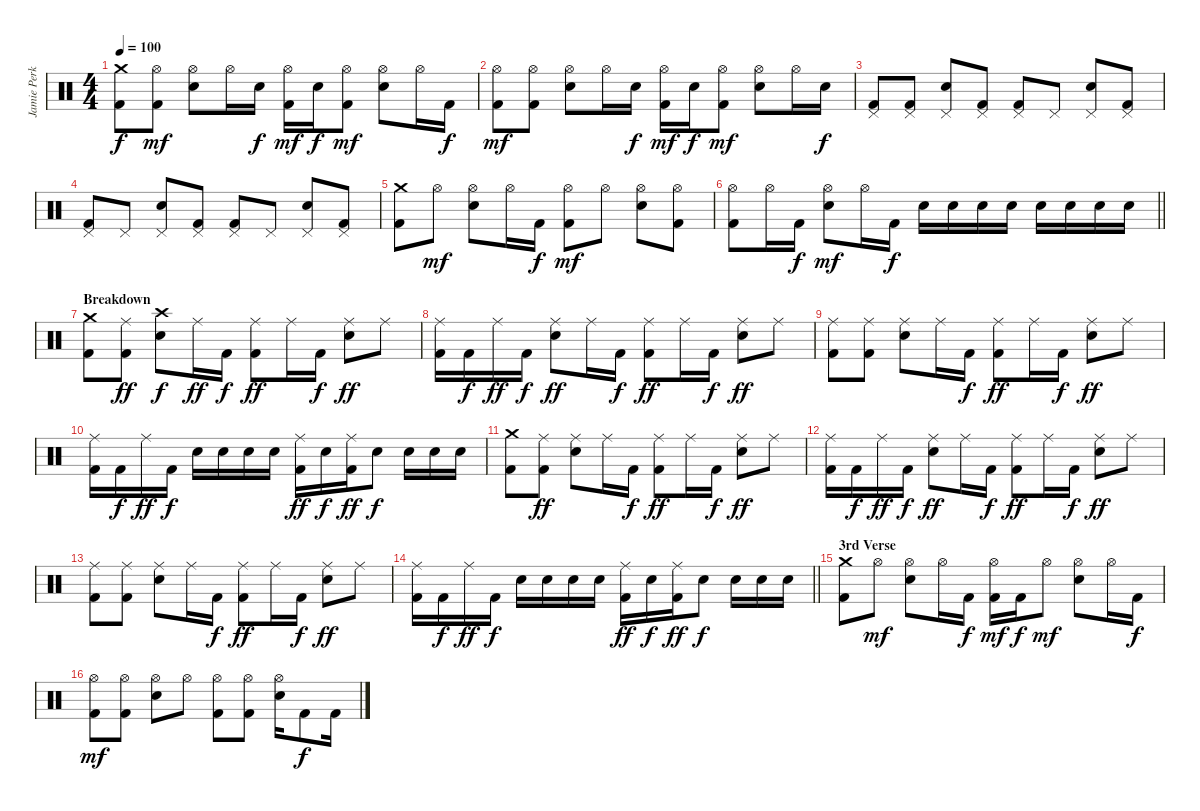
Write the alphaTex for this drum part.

\track ("Jamie Perkins" "Jamie Perk") {instrument percussion}
\staff {score}
\articulation defaults
\ts (4 4)
\tempo 100
\clef neutral
\ks c
("Crash medium (hit)" "Kick (hit) 2").8{dy f} ("Hi-Hat (open)" "Kick (hit) 2").8{dy mf} ("Hi-Hat (open)" "Snare (hit) 2").8 "Hi-Hat (open)".16 "Snare (hit) 2".16{dy f} ("Hi-Hat (open)" "Kick (hit) 2").16{dy mf} "Snare (hit) 2".16{dy f} ("Hi-Hat (open)" "Kick (hit) 2").8{dy mf} ("Hi-Hat (open)" "Snare (hit) 2").8 "Hi-Hat (open)".16 "Kick (hit) 2".16{dy f} |
("Hi-Hat (open)" "Kick (hit) 2").8{dy mf} ("Hi-Hat (open)" "Kick (hit) 2").8 ("Hi-Hat (open)" "Snare (hit) 2").8 "Hi-Hat (open)".16 "Snare (hit) 2".16{dy f} ("Hi-Hat (open)" "Kick (hit) 2").16{dy mf} "Snare (hit) 2".16{dy f} ("Hi-Hat (open)" "Kick (hit) 2").8{dy mf} ("Hi-Hat (open)" "Snare (hit) 2").8 "Hi-Hat (open)".16 "Snare (hit) 2".16{dy f} |
("Pedal Hi-Hat (hit)" "Kick (hit) 2").8 ("Pedal Hi-Hat (hit)" "Kick (hit) 2").8 ("Pedal Hi-Hat (hit)" "Snare (hit) 2").8 ("Pedal Hi-Hat (hit)" "Kick (hit) 2").8 ("Pedal Hi-Hat (hit)" "Kick (hit) 2").8 "Pedal Hi-Hat (hit)".8 ("Pedal Hi-Hat (hit)" "Snare (hit) 2").8 ("Pedal Hi-Hat (hit)" "Kick (hit) 2").8 |
("Pedal Hi-Hat (hit)" "Kick (hit) 2").8 "Pedal Hi-Hat (hit)".8 ("Pedal Hi-Hat (hit)" "Snare (hit) 2").8 ("Pedal Hi-Hat (hit)" "Kick (hit) 2").8 ("Pedal Hi-Hat (hit)" "Kick (hit) 2").8 "Pedal Hi-Hat (hit)".8 ("Pedal Hi-Hat (hit)" "Snare (hit) 2").8 ("Pedal Hi-Hat (hit)" "Kick (hit) 2").8 |
("Crash medium (hit)" "Kick (hit) 2").8 "Hi-Hat (open)".8{dy mf} ("Hi-Hat (open)" "Snare (hit) 2").8 "Hi-Hat (open)".16 "Kick (hit) 2".16{dy f} ("Hi-Hat (open)" "Kick (hit) 2").8{dy mf} "Hi-Hat (open)".8 ("Hi-Hat (open)" "Snare (hit) 2").8 ("Hi-Hat (open)" "Kick (hit) 2").8 |
\barLineRight lightlight
("Hi-Hat (open)" "Kick (hit) 2").8 "Hi-Hat (open)".16 "Kick (hit) 2".16{dy f} ("Hi-Hat (open)" "Snare (hit) 2").8{dy mf} "Hi-Hat (open)".16 "Kick (hit) 2".16{dy f} "Snare (hit) 2".16 "Snare (hit) 2".16 "Snare (hit) 2".16 "Snare (hit) 2".16 "Snare (hit) 2".16 "Snare (hit) 2".16 "Snare (hit) 2".16 "Snare (hit) 2".16 |
\section ("" "Breakdown")
("Crash medium (hit)" "Kick (hit) 2").8 ("Ride (middle)" "Kick (hit) 2").8{dy ff} ("Crash high (hit)" "Snare (hit) 2").8{dy f} "Ride (middle)".16{dy ff} "Kick (hit) 2".16{dy f} ("Ride (middle)" "Kick (hit) 2").8{dy ff} "Ride (middle)".16 "Kick (hit) 2".16{dy f} ("Ride (middle)" "Snare (hit) 2").8{dy ff} "Ride (middle)".8 |
("Ride (middle)" "Kick (hit) 2").16 "Kick (hit) 2".16{dy f} "Ride (middle)".16{dy ff} "Kick (hit) 2".16{dy f} ("Ride (middle)" "Snare (hit) 2").8{dy ff} "Ride (middle)".16 "Kick (hit) 2".16{dy f} ("Ride (middle)" "Kick (hit) 2").8{dy ff} "Ride (middle)".16 "Kick (hit) 2".16{dy f} ("Ride (middle)" "Snare (hit) 2").8{dy ff} "Ride (middle)".8 |
("Ride (middle)" "Kick (hit) 2").8 ("Ride (middle)" "Kick (hit) 2").8 ("Ride (middle)" "Snare (hit) 2").8 "Ride (middle)".16 "Kick (hit) 2".16{dy f} ("Ride (middle)" "Kick (hit) 2").8{dy ff} "Ride (middle)".16 "Kick (hit) 2".16{dy f} ("Ride (middle)" "Snare (hit) 2").8{dy ff} "Ride (middle)".8 |
("Ride (middle)" "Kick (hit) 2").16 "Kick (hit) 2".16{dy f} "Ride (middle)".16{dy ff} "Kick (hit) 2".16{dy f} "Snare (hit) 2".16 "Snare (hit) 2".16 "Snare (hit) 2".16 "Snare (hit) 2".16 ("Ride (middle)" "Kick (hit) 2").16{dy ff} "Snare (hit) 2".16{dy f} ("Ride (middle)" "Kick (hit) 2").16{dy ff} "Snare (hit) 2".8{dy f} "Snare (hit) 2".16 "Snare (hit) 2".16 "Snare (hit) 2".16 |
("Crash medium (hit)" "Kick (hit) 2").8 ("Ride (middle)" "Kick (hit) 2").8{dy ff} ("Ride (middle)" "Snare (hit) 2").8 "Ride (middle)".16 "Kick (hit) 2".16{dy f} ("Ride (middle)" "Kick (hit) 2").8{dy ff} "Ride (middle)".16 "Kick (hit) 2".16{dy f} ("Ride (middle)" "Snare (hit) 2").8{dy ff} "Ride (middle)".8 |
("Ride (middle)" "Kick (hit) 2").16 "Kick (hit) 2".16{dy f} "Ride (middle)".16{dy ff} "Kick (hit) 2".16{dy f} ("Ride (middle)" "Snare (hit) 2").8{dy ff} "Ride (middle)".16 "Kick (hit) 2".16{dy f} ("Ride (middle)" "Kick (hit) 2").8{dy ff} "Ride (middle)".16 "Kick (hit) 2".16{dy f} ("Ride (middle)" "Snare (hit) 2").8{dy ff} "Ride (middle)".8 |
("Ride (middle)" "Kick (hit) 2").8 ("Ride (middle)" "Kick (hit) 2").8 ("Ride (middle)" "Snare (hit) 2").8 "Ride (middle)".16 "Kick (hit) 2".16{dy f} ("Ride (middle)" "Kick (hit) 2").8{dy ff} "Ride (middle)".16 "Kick (hit) 2".16{dy f} ("Ride (middle)" "Snare (hit) 2").8{dy ff} "Ride (middle)".8 |
\barLineRight lightlight
("Ride (middle)" "Kick (hit) 2").16 "Kick (hit) 2".16{dy f} "Ride (middle)".16{dy ff} "Kick (hit) 2".16{dy f} "Snare (hit) 2".16 "Snare (hit) 2".16 "Snare (hit) 2".16 "Snare (hit) 2".16 ("Ride (middle)" "Kick (hit) 2").16{dy ff} "Snare (hit) 2".16{dy f} ("Ride (middle)" "Kick (hit) 2").16{dy ff} "Snare (hit) 2".8{dy f} "Snare (hit) 2".16 "Snare (hit) 2".16 "Snare (hit) 2".16 |
\section ("" "3rd Verse")
("Crash medium (hit)" "Kick (hit) 2").8 "Hi-Hat (open)".8{dy mf} ("Hi-Hat (open)" "Snare (hit) 2").8 "Hi-Hat (open)".16 "Kick (hit) 2".16{dy f} ("Hi-Hat (open)" "Kick (hit) 2").16{dy mf} "Kick (hit) 2".16{dy f} "Hi-Hat (open)".8{dy mf} ("Hi-Hat (open)" "Snare (hit) 2").8 "Hi-Hat (open)".16 "Kick (hit) 2".16{dy f} |
("Hi-Hat (open)" "Kick (hit) 2").8{dy mf} ("Hi-Hat (open)" "Kick (hit) 2").8 ("Hi-Hat (open)" "Snare (hit) 2").8 "Hi-Hat (open)".8 ("Hi-Hat (open)" "Kick (hit) 2").8 ("Hi-Hat (open)" "Kick (hit) 2").8 ("Hi-Hat (open)" "Snare (hit) 2").16 "Kick (hit) 2".8{dy f} "Kick (hit) 2".16
